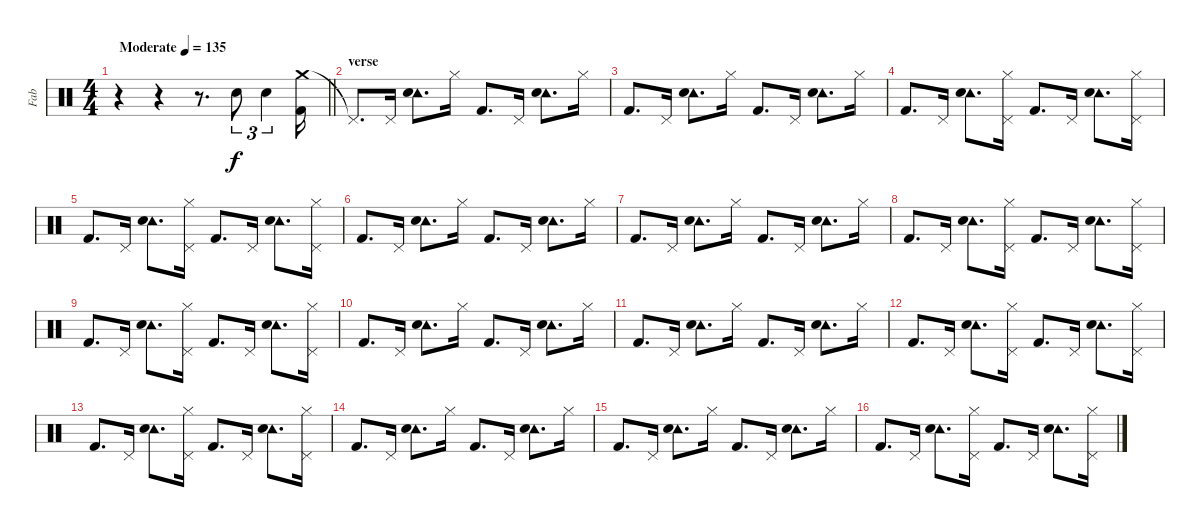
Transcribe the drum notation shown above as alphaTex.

\track ("Fab" "Fab") {instrument percussion}
\staff {score}
\articulation defaults
\ts (4 4)
\tempo (135 "Moderate")
\clef neutral
\barLineRight lightlight
\ks c
r.4{dy f} r.4 r.8{d} "Snare (hit) 2".8{tu (3 2)} "Snare (hit) 2".4{tu (3 2)} ("Crash medium (hit)" "Kick (hit) 2").16 |
\section ("" "verse")
"Pedal Hi-Hat (hit)"{t}.8{d} "Pedal Hi-Hat (hit)".16 ("Tambourine (hit)" "Snare (hit) 2").8{d} "Hi-Hat (closed)".16 "Kick (hit) 2".8{d} "Pedal Hi-Hat (hit)".16 ("Tambourine (hit)" "Snare (hit) 2").8{d} "Hi-Hat (closed)".16 |
"Kick (hit) 2".8{d} "Pedal Hi-Hat (hit)".16 ("Tambourine (hit)" "Snare (hit) 2").8{d} "Hi-Hat (closed)".16 "Kick (hit) 2".8{d} "Pedal Hi-Hat (hit)".16 ("Tambourine (hit)" "Snare (hit) 2").8{d} "Hi-Hat (closed)".16 |
"Kick (hit) 2".8{d} "Pedal Hi-Hat (hit)".16 ("Tambourine (hit)" "Snare (hit) 2").8{d} ("Hi-Hat (closed)" "Pedal Hi-Hat (hit)").16 "Kick (hit) 2".8{d} "Pedal Hi-Hat (hit)".16 ("Tambourine (hit)" "Snare (hit) 2").8{d} ("Hi-Hat (closed)" "Pedal Hi-Hat (hit)").16 |
"Kick (hit) 2".8{d} "Pedal Hi-Hat (hit)".16 ("Tambourine (hit)" "Snare (hit) 2").8{d} ("Hi-Hat (closed)" "Pedal Hi-Hat (hit)").16 "Kick (hit) 2".8{d} "Pedal Hi-Hat (hit)".16 ("Tambourine (hit)" "Snare (hit) 2").8{d} ("Hi-Hat (closed)" "Pedal Hi-Hat (hit)").16 |
"Kick (hit) 2".8{d} "Pedal Hi-Hat (hit)".16 ("Tambourine (hit)" "Snare (hit) 2").8{d} "Hi-Hat (closed)".16 "Kick (hit) 2".8{d} "Pedal Hi-Hat (hit)".16 ("Tambourine (hit)" "Snare (hit) 2").8{d} "Hi-Hat (closed)".16 |
"Kick (hit) 2".8{d} "Pedal Hi-Hat (hit)".16 ("Tambourine (hit)" "Snare (hit) 2").8{d} "Hi-Hat (closed)".16 "Kick (hit) 2".8{d} "Pedal Hi-Hat (hit)".16 ("Tambourine (hit)" "Snare (hit) 2").8{d} "Hi-Hat (closed)".16 |
"Kick (hit) 2".8{d} "Pedal Hi-Hat (hit)".16 ("Tambourine (hit)" "Snare (hit) 2").8{d} ("Hi-Hat (closed)" "Pedal Hi-Hat (hit)").16 "Kick (hit) 2".8{d} "Pedal Hi-Hat (hit)".16 ("Tambourine (hit)" "Snare (hit) 2").8{d} ("Hi-Hat (closed)" "Pedal Hi-Hat (hit)").16 |
"Kick (hit) 2".8{d} "Pedal Hi-Hat (hit)".16 ("Tambourine (hit)" "Snare (hit) 2").8{d} ("Hi-Hat (closed)" "Pedal Hi-Hat (hit)").16 "Kick (hit) 2".8{d} "Pedal Hi-Hat (hit)".16 ("Tambourine (hit)" "Snare (hit) 2").8{d} ("Hi-Hat (closed)" "Pedal Hi-Hat (hit)").16 |
"Kick (hit) 2".8{d} "Pedal Hi-Hat (hit)".16 ("Tambourine (hit)" "Snare (hit) 2").8{d} "Hi-Hat (closed)".16 "Kick (hit) 2".8{d} "Pedal Hi-Hat (hit)".16 ("Tambourine (hit)" "Snare (hit) 2").8{d} "Hi-Hat (closed)".16 |
"Kick (hit) 2".8{d} "Pedal Hi-Hat (hit)".16 ("Tambourine (hit)" "Snare (hit) 2").8{d} "Hi-Hat (closed)".16 "Kick (hit) 2".8{d} "Pedal Hi-Hat (hit)".16 ("Tambourine (hit)" "Snare (hit) 2").8{d} "Hi-Hat (closed)".16 |
"Kick (hit) 2".8{d} "Pedal Hi-Hat (hit)".16 ("Tambourine (hit)" "Snare (hit) 2").8{d} ("Hi-Hat (closed)" "Pedal Hi-Hat (hit)").16 "Kick (hit) 2".8{d} "Pedal Hi-Hat (hit)".16 ("Tambourine (hit)" "Snare (hit) 2").8{d} ("Hi-Hat (closed)" "Pedal Hi-Hat (hit)").16 |
"Kick (hit) 2".8{d} "Pedal Hi-Hat (hit)".16 ("Tambourine (hit)" "Snare (hit) 2").8{d} ("Hi-Hat (closed)" "Pedal Hi-Hat (hit)").16 "Kick (hit) 2".8{d} "Pedal Hi-Hat (hit)".16 ("Tambourine (hit)" "Snare (hit) 2").8{d} ("Hi-Hat (closed)" "Pedal Hi-Hat (hit)").16 |
"Kick (hit) 2".8{d} "Pedal Hi-Hat (hit)".16 ("Tambourine (hit)" "Snare (hit) 2").8{d} "Hi-Hat (closed)".16 "Kick (hit) 2".8{d} "Pedal Hi-Hat (hit)".16 ("Tambourine (hit)" "Snare (hit) 2").8{d} "Hi-Hat (closed)".16 |
"Kick (hit) 2".8{d} "Pedal Hi-Hat (hit)".16 ("Tambourine (hit)" "Snare (hit) 2").8{d} "Hi-Hat (closed)".16 "Kick (hit) 2".8{d} "Pedal Hi-Hat (hit)".16 ("Tambourine (hit)" "Snare (hit) 2").8{d} "Hi-Hat (closed)".16 |
"Kick (hit) 2".8{d} "Pedal Hi-Hat (hit)".16 ("Tambourine (hit)" "Snare (hit) 2").8{d} ("Hi-Hat (closed)" "Pedal Hi-Hat (hit)").16 "Kick (hit) 2".8{d} "Pedal Hi-Hat (hit)".16 ("Tambourine (hit)" "Snare (hit) 2").8{d} ("Hi-Hat (closed)" "Pedal Hi-Hat (hit)").16
